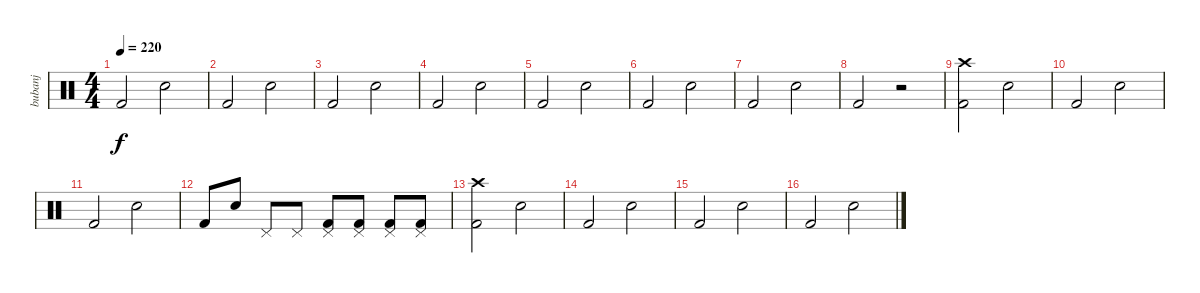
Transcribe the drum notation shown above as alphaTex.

\track ("bubanj" "bubanj") {instrument percussion}
\staff {score}
\articulation defaults
\ts (4 4)
\tempo 220
\clef neutral
\ks c "Kick (hit) 2".2{dy f} "Snare (hit) 2".2
|
"Kick (hit) 2".2 "Snare (hit) 2".2 |
"Kick (hit) 2".2 "Snare (hit) 2".2 |
"Kick (hit) 2".2 "Snare (hit) 2".2 |
"Kick (hit) 2".2 "Snare (hit) 2".2 |
"Kick (hit) 2".2 "Snare (hit) 2".2 |
"Kick (hit) 2".2 "Snare (hit) 2".2 |
"Kick (hit) 2".2 r.2 |
("Kick (hit) 2" "Crash high (hit)").2 "Snare (hit) 2".2 |
"Kick (hit) 2".2 "Snare (hit) 2".2 |
"Kick (hit) 2".2 "Snare (hit) 2".2 |
"Kick (hit) 2".8 "Snare (hit) 2".8 "Pedal Hi-Hat (hit)".8 "Pedal Hi-Hat (hit)".8 ("Pedal Hi-Hat (hit)" "Kick (hit) 2").8 ("Pedal Hi-Hat (hit)" "Kick (hit) 2").8 ("Pedal Hi-Hat (hit)" "Kick (hit) 2").8 ("Pedal Hi-Hat (hit)" "Kick (hit) 2").8 |
("Kick (hit) 2" "Crash high (hit)").2 "Snare (hit) 2".2 |
"Kick (hit) 2".2 "Snare (hit) 2".2 |
"Kick (hit) 2".2 "Snare (hit) 2".2 |
"Kick (hit) 2".2 "Snare (hit) 2".2
